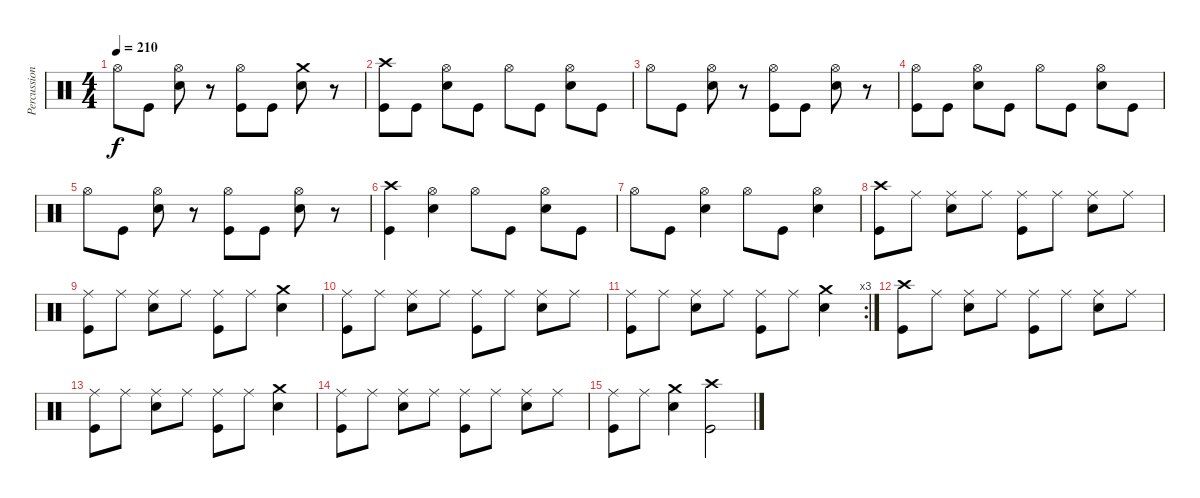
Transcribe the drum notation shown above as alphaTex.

\track ("Percussion" "Percussion") {instrument percussion}
\staff {score}
\articulation defaults
\ts (4 4)
\tempo 210
\clef neutral
\ks c "Hi-Hat (open)".8{dy f} "Kick (hit)".8
("Hi-Hat (open)" "Electric Snare (hit)").8 r.8 ("Hi-Hat (open)" "Kick (hit)").8 "Kick (hit)".8 ("Crash medium (hit)" "Electric Snare (hit)").8 r.8 |
("Crash high (hit)" "Kick (hit)").8 "Kick (hit)".8 ("Hi-Hat (open)" "Electric Snare (hit)").8 "Kick (hit)".8 "Hi-Hat (open)".8 "Kick (hit)".8 ("Hi-Hat (open)" "Electric Snare (hit)").8 "Kick (hit)".8 |
"Hi-Hat (open)".8 "Kick (hit)".8 ("Hi-Hat (open)" "Electric Snare (hit)").8 r.8 ("Hi-Hat (open)" "Kick (hit)").8 "Kick (hit)".8 ("Hi-Hat (open)" "Electric Snare (hit)").8 r.8 |
("Hi-Hat (open)" "Kick (hit)").8 "Kick (hit)".8 ("Hi-Hat (open)" "Electric Snare (hit)").8 "Kick (hit)".8 "Hi-Hat (open)".8 "Kick (hit)".8 ("Hi-Hat (open)" "Electric Snare (hit)").8 "Kick (hit)".8 |
"Hi-Hat (open)".8 "Kick (hit)".8 ("Hi-Hat (open)" "Electric Snare (hit)").8 r.8 ("Hi-Hat (open)" "Kick (hit)").8 "Kick (hit)".8 ("Hi-Hat (open)" "Electric Snare (hit)").8 r.8 |
("Crash high (hit)" "Kick (hit)").4 ("Hi-Hat (open)" "Electric Snare (hit)").4 "Hi-Hat (open)".8 "Kick (hit)".8 ("Hi-Hat (open)" "Electric Snare (hit)").8 "Kick (hit)".8 |
"Hi-Hat (open)".8 "Kick (hit)".8 ("Hi-Hat (open)" "Electric Snare (hit)").4 "Hi-Hat (open)".8 "Kick (hit)".8 ("Hi-Hat (open)" "Electric Snare (hit)").4 |
("Crash high (hit)" "Kick (hit)").8 "Ride (middle)".8 ("Ride (middle)" "Electric Snare (hit)").8 "Ride (middle)".8 ("Ride (middle)" "Kick (hit)").8 "Ride (middle)".8 ("Ride (middle)" "Electric Snare (hit)").8 "Ride (middle)".8 |
("Ride (middle)" "Kick (hit)").8 "Ride (middle)".8 ("Ride (middle)" "Electric Snare (hit)").8 "Ride (middle)".8 ("Ride (middle)" "Kick (hit)").8 "Ride (middle)".8 ("Crash medium (hit)" "Electric Snare (hit)").4 |
("Ride (middle)" "Kick (hit)").8 "Ride (middle)".8 ("Ride (middle)" "Electric Snare (hit)").8 "Ride (middle)".8 ("Ride (middle)" "Kick (hit)").8 "Ride (middle)".8 ("Ride (middle)" "Electric Snare (hit)").8 "Ride (middle)".8 |
\rc 3
("Ride (middle)" "Kick (hit)").8 "Ride (middle)".8 ("Ride (middle)" "Electric Snare (hit)").8 "Ride (middle)".8 ("Ride (middle)" "Kick (hit)").8 "Ride (middle)".8 ("Crash medium (hit)" "Electric Snare (hit)").4 |
("Crash high (hit)" "Kick (hit)").8 "Ride (middle)".8 ("Ride (middle)" "Electric Snare (hit)").8 "Ride (middle)".8 ("Ride (middle)" "Kick (hit)").8 "Ride (middle)".8 ("Ride (middle)" "Electric Snare (hit)").8 "Ride (middle)".8 |
("Ride (middle)" "Kick (hit)").8 "Ride (middle)".8 ("Ride (middle)" "Electric Snare (hit)").8 "Ride (middle)".8 ("Ride (middle)" "Kick (hit)").8 "Ride (middle)".8 ("Crash medium (hit)" "Electric Snare (hit)").4 |
("Ride (middle)" "Kick (hit)").8 "Ride (middle)".8 ("Ride (middle)" "Electric Snare (hit)").8 "Ride (middle)".8 ("Ride (middle)" "Kick (hit)").8 "Ride (middle)".8 ("Ride (middle)" "Electric Snare (hit)").8 "Ride (middle)".8 |
("Ride (middle)" "Kick (hit)").8 "Ride (middle)".8 ("Crash medium (hit)" "Electric Snare (hit)").4 ("Crash high (hit)" "Kick (hit)").2
